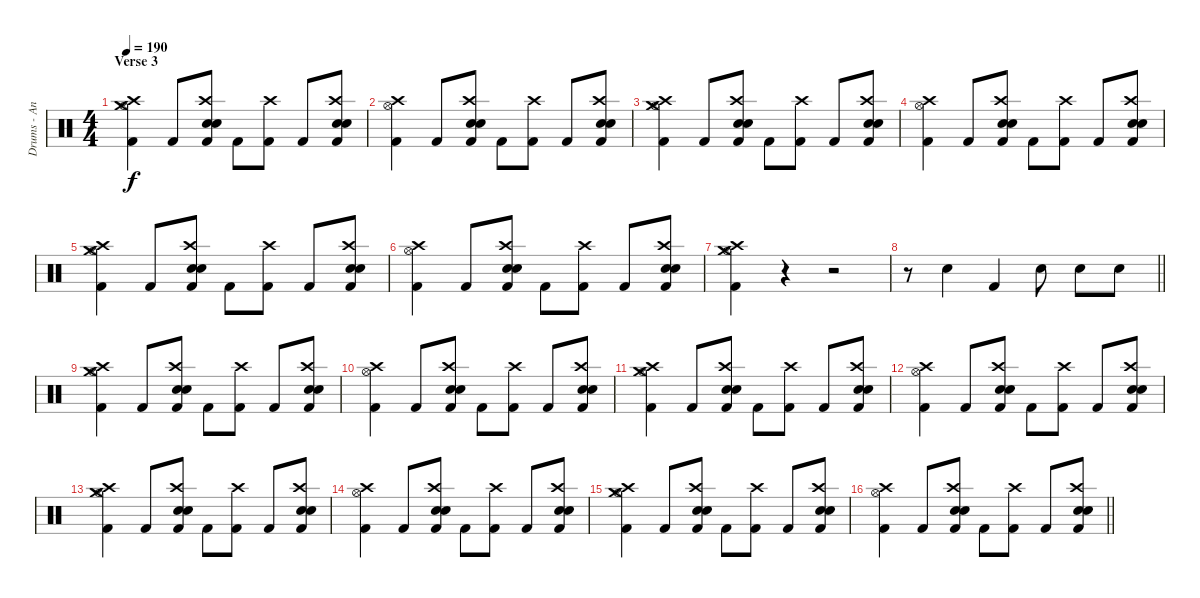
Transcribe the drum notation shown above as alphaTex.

\track ("Drums - Anders Johansson" "Drums - An") {instrument percussion}
\staff {score}
\articulation defaults
\ts (4 4)
\section ("" "Verse 3")
\tempo 190
\clef neutral
\ks c
("Hi-Hat (open)" "Kick (hit) 2" "Crash medium (hit)" "Crash high (hit)").4{dy f} "Kick (hit) 2".8 ("Electric Snare (hit)" "Snare (hit) 2" "Kick (hit) 2" "Crash high (hit)").8 "Kick (hit) 2".8 ("Kick (hit) 2" "Crash high (hit)").8 "Kick (hit) 2".8 ("Electric Snare (hit)" "Snare (hit) 2" "Kick (hit) 2" "Crash high (hit)").8 |
("Hi-Hat (open)" "Kick (hit) 2" "Crash high (hit)").4 "Kick (hit) 2".8 ("Electric Snare (hit)" "Snare (hit) 2" "Kick (hit) 2" "Crash high (hit)").8 "Kick (hit) 2".8 ("Kick (hit) 2" "Crash high (hit)").8 "Kick (hit) 2".8 ("Electric Snare (hit)" "Snare (hit) 2" "Kick (hit) 2" "Crash high (hit)").8 |
("Hi-Hat (open)" "Kick (hit) 2" "Crash medium (hit)" "Crash high (hit)").4 "Kick (hit) 2".8 ("Electric Snare (hit)" "Snare (hit) 2" "Kick (hit) 2" "Crash high (hit)").8 "Kick (hit) 2".8 ("Kick (hit) 2" "Crash high (hit)").8 "Kick (hit) 2".8 ("Electric Snare (hit)" "Snare (hit) 2" "Kick (hit) 2" "Crash high (hit)").8 |
("Hi-Hat (open)" "Kick (hit) 2" "Crash high (hit)").4 "Kick (hit) 2".8 ("Electric Snare (hit)" "Snare (hit) 2" "Kick (hit) 2" "Crash high (hit)").8 "Kick (hit) 2".8 ("Kick (hit) 2" "Crash high (hit)").8 "Kick (hit) 2".8 ("Electric Snare (hit)" "Snare (hit) 2" "Kick (hit) 2" "Crash high (hit)").8 |
("Hi-Hat (open)" "Kick (hit) 2" "Crash medium (hit)" "Crash high (hit)").4 "Kick (hit) 2".8 ("Electric Snare (hit)" "Snare (hit) 2" "Kick (hit) 2" "Crash high (hit)").8 "Kick (hit) 2".8 ("Kick (hit) 2" "Crash high (hit)").8 "Kick (hit) 2".8 ("Electric Snare (hit)" "Snare (hit) 2" "Kick (hit) 2" "Crash high (hit)").8 |
("Hi-Hat (open)" "Kick (hit) 2" "Crash high (hit)").4 "Kick (hit) 2".8 ("Electric Snare (hit)" "Snare (hit) 2" "Kick (hit) 2" "Crash high (hit)").8 "Kick (hit) 2".8 ("Kick (hit) 2" "Crash high (hit)").8 "Kick (hit) 2".8 ("Electric Snare (hit)" "Snare (hit) 2" "Kick (hit) 2" "Crash high (hit)").8 |
("Hi-Hat (open)" "Kick (hit) 2" "Crash medium (hit)" "Crash high (hit)").4 r.4 r.2 |
\barLineRight lightlight
r.8 "Snare (hit) 2".4 "Kick (hit) 2".4 "Snare (hit) 2".8 "Snare (hit) 2".8 "Snare (hit) 2".8 |
("Hi-Hat (open)" "Kick (hit) 2" "Crash medium (hit)" "Crash high (hit)").4 "Kick (hit) 2".8 ("Electric Snare (hit)" "Snare (hit) 2" "Kick (hit) 2" "Crash high (hit)").8 "Kick (hit) 2".8 ("Kick (hit) 2" "Crash high (hit)").8 "Kick (hit) 2".8 ("Electric Snare (hit)" "Snare (hit) 2" "Kick (hit) 2" "Crash high (hit)").8 |
("Hi-Hat (open)" "Kick (hit) 2" "Crash high (hit)").4 "Kick (hit) 2".8 ("Electric Snare (hit)" "Snare (hit) 2" "Kick (hit) 2" "Crash high (hit)").8 "Kick (hit) 2".8 ("Kick (hit) 2" "Crash high (hit)").8 "Kick (hit) 2".8 ("Electric Snare (hit)" "Snare (hit) 2" "Kick (hit) 2" "Crash high (hit)").8 |
("Hi-Hat (open)" "Kick (hit) 2" "Crash medium (hit)" "Crash high (hit)").4 "Kick (hit) 2".8 ("Electric Snare (hit)" "Snare (hit) 2" "Kick (hit) 2" "Crash high (hit)").8 "Kick (hit) 2".8 ("Kick (hit) 2" "Crash high (hit)").8 "Kick (hit) 2".8 ("Electric Snare (hit)" "Snare (hit) 2" "Kick (hit) 2" "Crash high (hit)").8 |
("Hi-Hat (open)" "Kick (hit) 2" "Crash high (hit)").4 "Kick (hit) 2".8 ("Electric Snare (hit)" "Snare (hit) 2" "Kick (hit) 2" "Crash high (hit)").8 "Kick (hit) 2".8 ("Kick (hit) 2" "Crash high (hit)").8 "Kick (hit) 2".8 ("Electric Snare (hit)" "Snare (hit) 2" "Kick (hit) 2" "Crash high (hit)").8 |
("Hi-Hat (open)" "Kick (hit) 2" "Crash medium (hit)" "Crash high (hit)").4 "Kick (hit) 2".8 ("Electric Snare (hit)" "Snare (hit) 2" "Kick (hit) 2" "Crash high (hit)").8 "Kick (hit) 2".8 ("Kick (hit) 2" "Crash high (hit)").8 "Kick (hit) 2".8 ("Electric Snare (hit)" "Snare (hit) 2" "Kick (hit) 2" "Crash high (hit)").8 |
("Hi-Hat (open)" "Kick (hit) 2" "Crash high (hit)").4 "Kick (hit) 2".8 ("Electric Snare (hit)" "Snare (hit) 2" "Kick (hit) 2" "Crash high (hit)").8 "Kick (hit) 2".8 ("Kick (hit) 2" "Crash high (hit)").8 "Kick (hit) 2".8 ("Electric Snare (hit)" "Snare (hit) 2" "Kick (hit) 2" "Crash high (hit)").8 |
("Hi-Hat (open)" "Kick (hit) 2" "Crash medium (hit)" "Crash high (hit)").4 "Kick (hit) 2".8 ("Electric Snare (hit)" "Snare (hit) 2" "Kick (hit) 2" "Crash high (hit)").8 "Kick (hit) 2".8 ("Kick (hit) 2" "Crash high (hit)").8 "Kick (hit) 2".8 ("Electric Snare (hit)" "Snare (hit) 2" "Kick (hit) 2" "Crash high (hit)").8 |
\barLineRight lightlight
("Hi-Hat (open)" "Kick (hit) 2" "Crash high (hit)").4 "Kick (hit) 2".8 ("Electric Snare (hit)" "Snare (hit) 2" "Kick (hit) 2" "Crash high (hit)").8 "Kick (hit) 2".8 ("Kick (hit) 2" "Crash high (hit)").8 "Kick (hit) 2".8 ("Electric Snare (hit)" "Snare (hit) 2" "Kick (hit) 2" "Crash high (hit)").8
